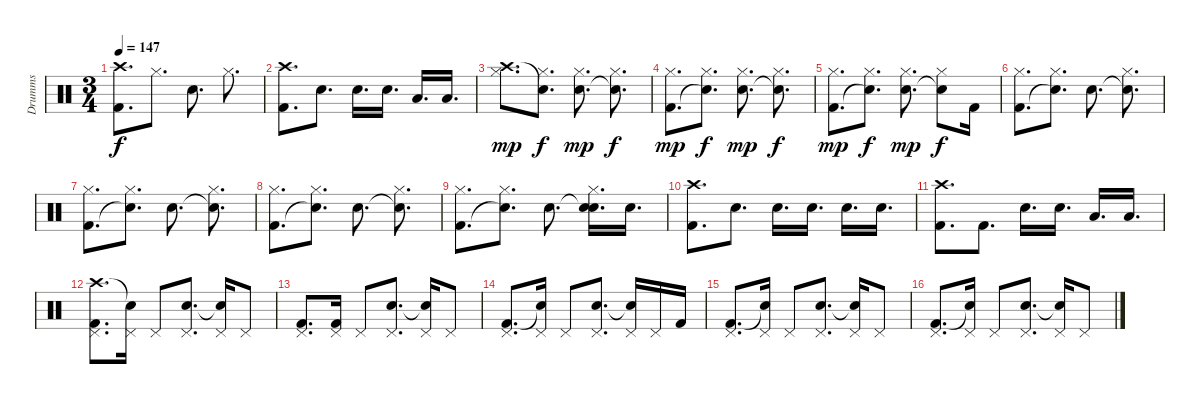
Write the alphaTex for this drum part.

\track ("Drumms" "Drumms") {instrument percussion}
\staff {score}
\articulation defaults
\ts (3 4)
\tempo 147
\clef neutral
\ks c
("Crash high (hit)" "Kick (hit) 2").8{d dy f} "Hi-Hat (closed)".8{d} "Electric Snare (hit)".8{d} "Hi-Hat (closed)".8{d} |
("Crash high (hit)" "Kick (hit) 2").8{d} "Electric Snare (hit)".8{d} "Electric Snare (hit)".16{d} "Electric Snare (hit)".16{d} "Low Tom (hit)".16{d} "Low Tom (hit)".16{d} |
\section ("" "")
("Crash high (hit)" "Hi-Hat (closed)").8{d dy mp} ("Snare (hit)"{t} "Hi-Hat (closed)").8{d dy f} ("Electric Snare (hit)" "Hi-Hat (closed)").8{d dy mp} ("Snare (hit)"{t} "Hi-Hat (closed)").8{d dy f} |
("Kick (hit) 2" "Hi-Hat (closed)").8{d dy mp} ("Snare (hit)"{t} "Hi-Hat (closed)").8{d dy f} ("Electric Snare (hit)" "Hi-Hat (closed)").8{d dy mp} ("Snare (hit)"{t} "Hi-Hat (closed)").8{d dy f} |
("Kick (hit) 2" "Hi-Hat (closed)").8{d dy mp} ("Snare (hit)"{t} "Hi-Hat (closed)").8{d dy f} ("Electric Snare (hit)" "Hi-Hat (closed)").8{d dy mp} ("Snare (hit)"{t} "Hi-Hat (closed)").8{dy f} "Kick (hit) 2".16 |
("Kick (hit) 2" "Hi-Hat (closed)").8{d} ("Snare (hit)"{t} "Hi-Hat (closed)").8{d} "Electric Snare (hit)".8{d} ("Snare (hit)"{t} "Hi-Hat (closed)").8{d} |
("Kick (hit) 2" "Hi-Hat (closed)").8{d} ("Snare (hit)"{t} "Hi-Hat (closed)").8{d} "Electric Snare (hit)".8{d} ("Snare (hit)"{t} "Hi-Hat (closed)").8{d} |
("Kick (hit) 2" "Hi-Hat (closed)").8{d} ("Snare (hit)"{t} "Hi-Hat (closed)").8{d} "Electric Snare (hit)".8{d} ("Snare (hit)"{t} "Hi-Hat (closed)").8{d} |
("Kick (hit) 2" "Hi-Hat (closed)").8{d} ("Snare (hit)"{t} "Hi-Hat (closed)").8{d} "Electric Snare (hit)".8{d} ("Snare (hit)"{t} "Electric Snare (hit)" "Hi-Hat (closed)").16{d} "Electric Snare (hit)".16{d} |
("Crash high (hit)" "Kick (hit) 2").8{d} "Electric Snare (hit)".8{d} "Electric Snare (hit)".16{d} "Electric Snare (hit)".16{d} "Electric Snare (hit)".16{d} "Electric Snare (hit)".16{d} |
("Crash high (hit)" "Kick (hit) 2").8{d} "Kick (hit) 2".8{d} "Electric Snare (hit)".16{d} "Electric Snare (hit)".16{d} "Low Tom (hit)".16{d} "Low Tom (hit)".16{d} |
\section ("" "")
("Crash high (hit)" "Kick (hit) 2" "Pedal Hi-Hat (hit)").8{d} ("Snare (hit)"{t} "Pedal Hi-Hat (hit)").16 "Pedal Hi-Hat (hit)".8 ("Electric Snare (hit)" "Pedal Hi-Hat (hit)").8{d} ("Snare (hit)"{t} "Pedal Hi-Hat (hit)").16 "Pedal Hi-Hat (hit)".8 |
("Kick (hit) 2" "Pedal Hi-Hat (hit)").8{d} ("Kick (hit) 2" "Pedal Hi-Hat (hit)").16 "Pedal Hi-Hat (hit)".8 ("Electric Snare (hit)" "Pedal Hi-Hat (hit)").8{d} ("Snare (hit)"{t} "Pedal Hi-Hat (hit)").16 "Pedal Hi-Hat (hit)".8 |
("Kick (hit) 2" "Pedal Hi-Hat (hit)").8{d} ("Snare (hit)"{t} "Pedal Hi-Hat (hit)").16 "Pedal Hi-Hat (hit)".8 ("Electric Snare (hit)" "Pedal Hi-Hat (hit)").8{d} ("Snare (hit)"{t} "Pedal Hi-Hat (hit)").16 "Pedal Hi-Hat (hit)".16 "Kick (hit) 2".16 |
("Kick (hit) 2" "Pedal Hi-Hat (hit)").8{d} ("Snare (hit)"{t} "Pedal Hi-Hat (hit)").16 "Pedal Hi-Hat (hit)".8 ("Electric Snare (hit)" "Pedal Hi-Hat (hit)").8{d} ("Snare (hit)"{t} "Pedal Hi-Hat (hit)").16 "Pedal Hi-Hat (hit)".8 |
("Kick (hit) 2" "Pedal Hi-Hat (hit)").8{d} ("Snare (hit)"{t} "Pedal Hi-Hat (hit)").16 "Pedal Hi-Hat (hit)".8 ("Electric Snare (hit)" "Pedal Hi-Hat (hit)").8{d} ("Snare (hit)"{t} "Pedal Hi-Hat (hit)").16 "Pedal Hi-Hat (hit)".8
